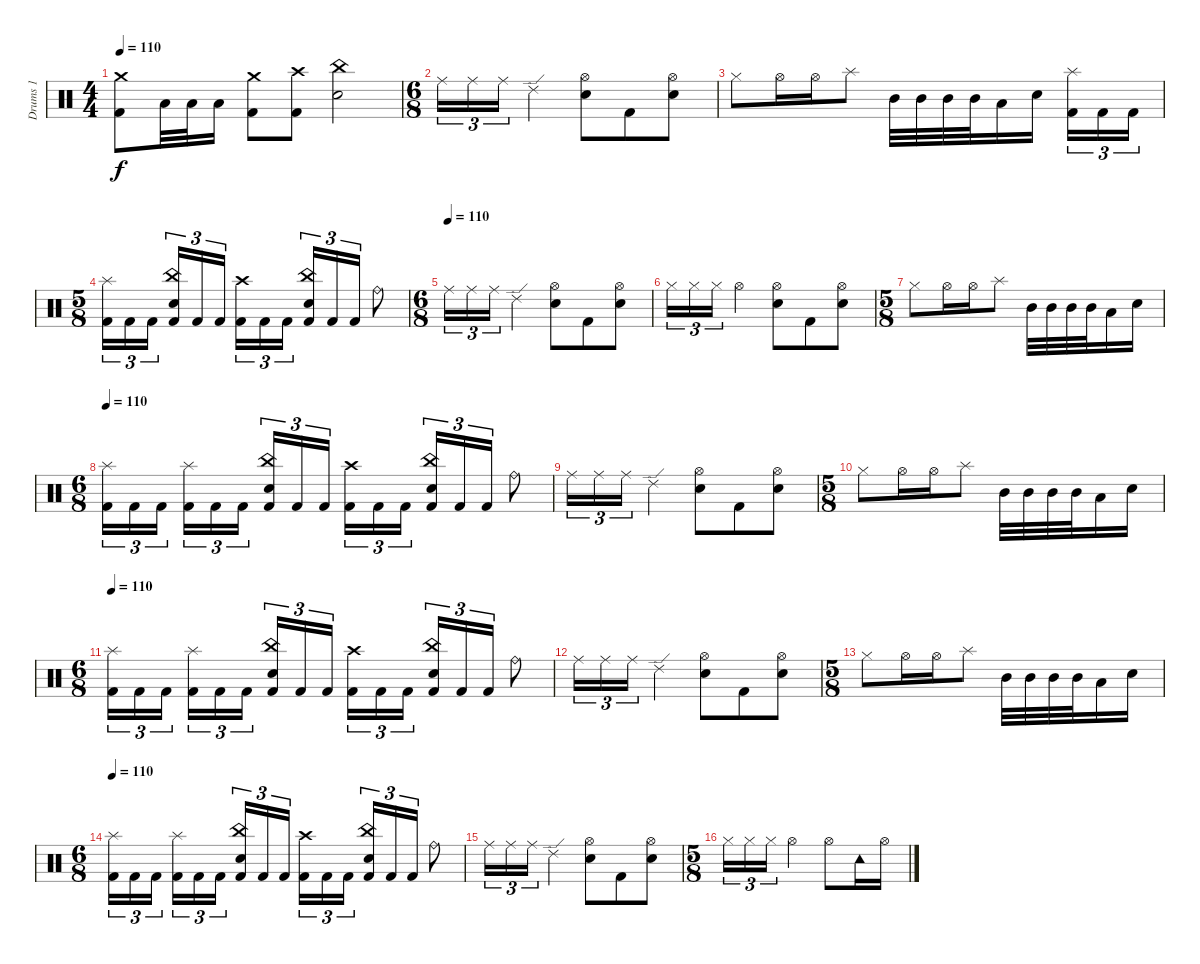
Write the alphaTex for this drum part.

\track ("Drums 1" "Drums 1") {instrument percussion}
\staff {score}
\articulation defaults
\ts (4 4)
\tempo 110
\clef neutral
\ks c
("Crash medium (hit)" "Kick (hit) 2").8{dy f} "Low Tom (hit)".32 "Low Tom (hit)".32 "Low Tom (hit)".16 ("Crash medium (hit)" "Kick (hit) 2").8 ("Crash high (hit)" "Kick (hit) 2").8 ("China (hit)" "Snare (hit) 2").2 |
\ts (6 8)
"Ride (middle)".16{tu (3 2)} "Ride (middle)".16{tu (3 2)} "Ride (middle)".16{tu (3 2)} "Ride (edge) 2".4 ("Hi-Hat (open)" "Snare (hit) 2").8 "Kick (hit) 2".8 ("Hi-Hat (open)" "Snare (hit) 2").8 |
"Hi-Hat (closed)".8 "Hi-Hat (open)".16 "Hi-Hat (open)".16 "Splash (hit)".8 "Mid Tom (hit)".32 "Mid Tom (hit)".32 "Mid Tom (hit)".32 "Mid Tom (hit)".32 "Low Tom (hit)".16 "Snare (hit) 2".16 ("Splash (hit)" "Kick (hit) 2").16{tu (3 2)} "Kick (hit) 2".16{tu (3 2)} "Kick (hit) 2".16{tu (3 2)} |
\ts (5 8)
("Splash (hit)" "Kick (hit) 2").16{tu (3 2)} "Kick (hit) 2".16{tu (3 2)} "Kick (hit) 2".16{tu (3 2)} ("China (hit)" "Snare (hit) 2" "Kick (hit) 2").16{tu (3 2)} "Kick (hit) 2".16{tu (3 2)} "Kick (hit) 2".16{tu (3 2)} ("Crash high (hit)" "Kick (hit) 2").16{tu (3 2)} "Kick (hit) 2".16{tu (3 2)} "Kick (hit) 2".16{tu (3 2)} ("China (hit)" "Snare (hit) 2" "Kick (hit) 2").16{tu (3 2)} "Kick (hit) 2".16{tu (3 2)} "Kick (hit) 2".16{tu (3 2)} "Ride (bell)".8 |
\ts (6 8)
\tempo (110)
"Ride (middle)".16{tu (3 2)} "Ride (middle)".16{tu (3 2)} "Ride (middle)".16{tu (3 2)} "Ride (edge) 2".4 ("Hi-Hat (open)" "Snare (hit) 2").8 "Kick (hit) 2".8 ("Hi-Hat (open)" "Snare (hit) 2").8 |
"Hi-Hat (closed)".16{tu (3 2)} "Hi-Hat (closed)".16{tu (3 2)} "Hi-Hat (closed)".16{tu (3 2)} "Hi-Hat (open)".4 ("Hi-Hat (open)" "Snare (hit) 2").8 "Kick (hit) 2".8 ("Hi-Hat (open)" "Snare (hit) 2").8 |
\ts (5 8)
"Hi-Hat (closed)".8 "Hi-Hat (open)".16 "Hi-Hat (open)".16 "Splash (hit)".8 "Mid Tom (hit)".32 "Mid Tom (hit)".32 "Mid Tom (hit)".32 "Mid Tom (hit)".32 "Low Tom (hit)".16 "Snare (hit) 2".16 |
\ts (6 8)
\tempo 110
("Splash (hit)" "Kick (hit) 2").16{tu (3 2)} "Kick (hit) 2".16{tu (3 2)} "Kick (hit) 2".16{tu (3 2)} ("Splash (hit)" "Kick (hit) 2").16{tu (3 2)} "Kick (hit) 2".16{tu (3 2)} "Kick (hit) 2".16{tu (3 2)} ("China (hit)" "Snare (hit) 2" "Kick (hit) 2").16{tu (3 2)} "Kick (hit) 2".16{tu (3 2)} "Kick (hit) 2".16{tu (3 2)} ("Crash high (hit)" "Kick (hit) 2").16{tu (3 2)} "Kick (hit) 2".16{tu (3 2)} "Kick (hit) 2".16{tu (3 2)} ("China (hit)" "Snare (hit) 2" "Kick (hit) 2").16{tu (3 2)} "Kick (hit) 2".16{tu (3 2)} "Kick (hit) 2".16{tu (3 2)} "Ride (bell)".8 |
"Ride (middle)".16{tu (3 2)} "Ride (middle)".16{tu (3 2)} "Ride (middle)".16{tu (3 2)} "Ride (edge) 2".4 ("Hi-Hat (open)" "Snare (hit) 2").8 "Kick (hit) 2".8 ("Hi-Hat (open)" "Snare (hit) 2").8 |
\ts (5 8)
"Hi-Hat (closed)".8 "Hi-Hat (open)".16 "Hi-Hat (open)".16 "Splash (hit)".8 "Mid Tom (hit)".32 "Mid Tom (hit)".32 "Mid Tom (hit)".32 "Mid Tom (hit)".32 "Low Tom (hit)".16 "Snare (hit) 2".16 |
\ts (6 8)
\tempo 110
("Splash (hit)" "Kick (hit) 2").16{tu (3 2)} "Kick (hit) 2".16{tu (3 2)} "Kick (hit) 2".16{tu (3 2)} ("Splash (hit)" "Kick (hit) 2").16{tu (3 2)} "Kick (hit) 2".16{tu (3 2)} "Kick (hit) 2".16{tu (3 2)} ("China (hit)" "Snare (hit) 2" "Kick (hit) 2").16{tu (3 2)} "Kick (hit) 2".16{tu (3 2)} "Kick (hit) 2".16{tu (3 2)} ("Crash high (hit)" "Kick (hit) 2").16{tu (3 2)} "Kick (hit) 2".16{tu (3 2)} "Kick (hit) 2".16{tu (3 2)} ("China (hit)" "Snare (hit) 2" "Kick (hit) 2").16{tu (3 2)} "Kick (hit) 2".16{tu (3 2)} "Kick (hit) 2".16{tu (3 2)} "Ride (bell)".8 |
"Ride (middle)".16{tu (3 2)} "Ride (middle)".16{tu (3 2)} "Ride (middle)".16{tu (3 2)} "Ride (edge) 2".4 ("Hi-Hat (open)" "Snare (hit) 2").8 "Kick (hit) 2".8 ("Hi-Hat (open)" "Snare (hit) 2").8 |
\ts (5 8)
"Hi-Hat (closed)".8 "Hi-Hat (open)".16 "Hi-Hat (open)".16 "Splash (hit)".8 "Mid Tom (hit)".32 "Mid Tom (hit)".32 "Mid Tom (hit)".32 "Mid Tom (hit)".32 "Low Tom (hit)".16 "Snare (hit) 2".16 |
\ts (6 8)
\tempo 110
("Splash (hit)" "Kick (hit) 2").16{tu (3 2)} "Kick (hit) 2".16{tu (3 2)} "Kick (hit) 2".16{tu (3 2)} ("Splash (hit)" "Kick (hit) 2").16{tu (3 2)} "Kick (hit) 2".16{tu (3 2)} "Kick (hit) 2".16{tu (3 2)} ("China (hit)" "Snare (hit) 2" "Kick (hit) 2").16{tu (3 2)} "Kick (hit) 2".16{tu (3 2)} "Kick (hit) 2".16{tu (3 2)} ("Crash high (hit)" "Kick (hit) 2").16{tu (3 2)} "Kick (hit) 2".16{tu (3 2)} "Kick (hit) 2".16{tu (3 2)} ("China (hit)" "Snare (hit) 2" "Kick (hit) 2").16{tu (3 2)} "Kick (hit) 2".16{tu (3 2)} "Kick (hit) 2".16{tu (3 2)} "Ride (bell)".8 |
"Ride (middle)".16{tu (3 2)} "Ride (middle)".16{tu (3 2)} "Ride (middle)".16{tu (3 2)} "Ride (edge) 2".4 ("Hi-Hat (open)" "Snare (hit) 2").8 "Kick (hit) 2".8 ("Hi-Hat (open)" "Snare (hit) 2").8 |
\ts (5 8)
"Hi-Hat (closed)".16{tu (3 2)} "Hi-Hat (closed)".16{tu (3 2)} "Hi-Hat (closed)".16{tu (3 2)} "Hi-Hat (open)".4 "Hi-Hat (open)".8 "Tambourine (hit)".16 "Hi-Hat (open)".16
